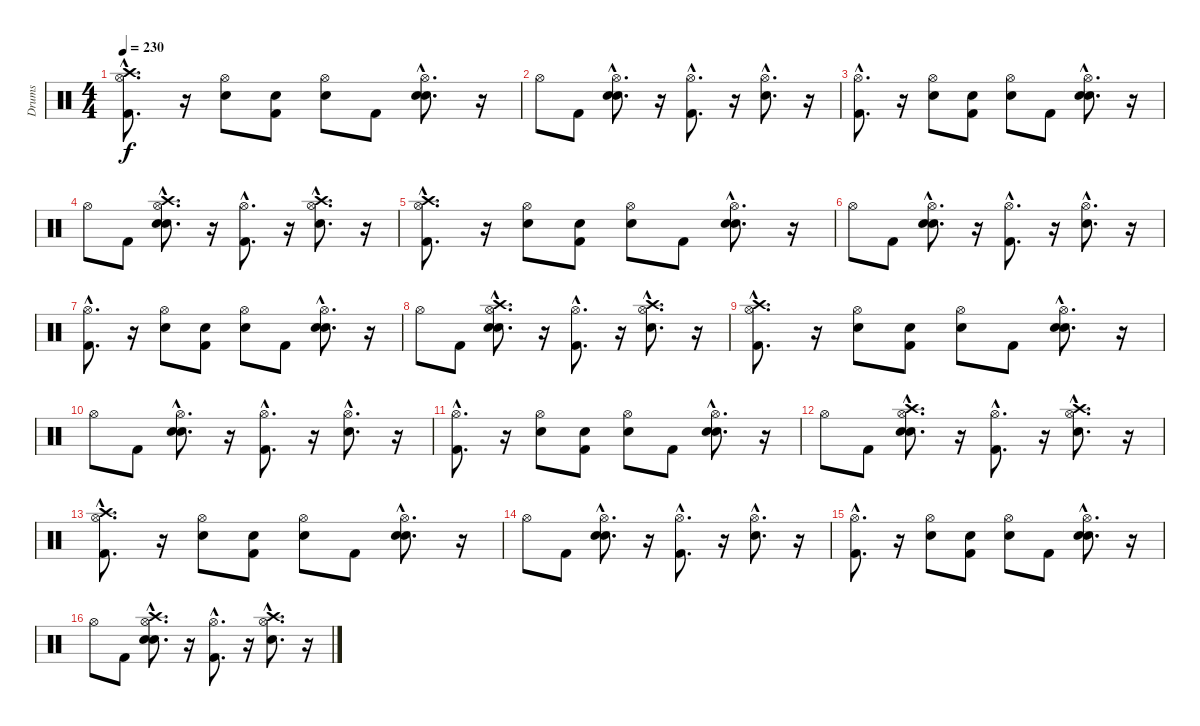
\track ("Drums" "Drums") {instrument percussion}
\staff {score}
\articulation defaults
\ts (4 4)
\tempo 230
\clef neutral
\ks c
("Kick (hit) 2"{hac} "Hi-Hat (open)"{hac} "Crash high (hit)"{hac}).8{d dy f} r.16 ("Snare (hit) 2" "Hi-Hat (open)").8 ("Snare (hit)" "Kick (hit) 2").8 ("Snare (hit)" "Hi-Hat (open)").8 "Kick (hit) 2".8 ("Snare (hit)"{hac} "Snare (hit) 2"{hac} "Hi-Hat (open)"{hac}).8{d} r.16 |
"Hi-Hat (open)".8 "Kick (hit) 2".8 ("Snare (hit)"{hac} "Snare (hit) 2"{hac} "Hi-Hat (open)"{hac}).8{d} r.16 ("Kick (hit) 2"{hac} "Hi-Hat (open)"{hac}).8{d} r.16 ("Snare (hit) 2"{hac} "Hi-Hat (open)"{hac}).8{d} r.16 |
("Kick (hit) 2"{hac} "Hi-Hat (open)"{hac}).8{d} r.16 ("Snare (hit) 2" "Hi-Hat (open)").8 ("Snare (hit)" "Kick (hit) 2").8 ("Snare (hit)" "Hi-Hat (open)").8 "Kick (hit) 2".8 ("Snare (hit)"{hac} "Snare (hit) 2"{hac} "Hi-Hat (open)"{hac}).8{d} r.16 |
"Hi-Hat (open)".8 "Kick (hit) 2".8 ("Snare (hit)"{hac} "Snare (hit) 2"{hac} "Hi-Hat (open)"{hac} "Crash high (hit)"{hac}).8{d} r.16 ("Kick (hit) 2"{hac} "Hi-Hat (open)"{hac}).8{d} r.16 ("Snare (hit) 2"{hac} "Hi-Hat (open)"{hac} "Crash high (hit)"{hac}).8{d} r.16 |
("Kick (hit) 2"{hac} "Hi-Hat (open)"{hac} "Crash high (hit)"{hac}).8{d} r.16 ("Snare (hit) 2" "Hi-Hat (open)").8 ("Snare (hit)" "Kick (hit) 2").8 ("Snare (hit)" "Hi-Hat (open)").8 "Kick (hit) 2".8 ("Snare (hit)"{hac} "Snare (hit) 2"{hac} "Hi-Hat (open)"{hac}).8{d} r.16 |
"Hi-Hat (open)".8 "Kick (hit) 2".8 ("Snare (hit)"{hac} "Snare (hit) 2"{hac} "Hi-Hat (open)"{hac}).8{d} r.16 ("Kick (hit) 2"{hac} "Hi-Hat (open)"{hac}).8{d} r.16 ("Snare (hit) 2"{hac} "Hi-Hat (open)"{hac}).8{d} r.16 |
("Kick (hit) 2"{hac} "Hi-Hat (open)"{hac}).8{d} r.16 ("Snare (hit) 2" "Hi-Hat (open)").8 ("Snare (hit)" "Kick (hit) 2").8 ("Snare (hit)" "Hi-Hat (open)").8 "Kick (hit) 2".8 ("Snare (hit)"{hac} "Snare (hit) 2"{hac} "Hi-Hat (open)"{hac}).8{d} r.16 |
"Hi-Hat (open)".8 "Kick (hit) 2".8 ("Snare (hit)"{hac} "Snare (hit) 2"{hac} "Hi-Hat (open)"{hac} "Crash high (hit)"{hac}).8{d} r.16 ("Kick (hit) 2"{hac} "Hi-Hat (open)"{hac}).8{d} r.16 ("Snare (hit) 2"{hac} "Hi-Hat (open)"{hac} "Crash high (hit)"{hac}).8{d} r.16 |
("Kick (hit) 2"{hac} "Hi-Hat (open)"{hac} "Crash high (hit)"{hac}).8{d} r.16 ("Snare (hit) 2" "Hi-Hat (open)").8 ("Snare (hit)" "Kick (hit) 2").8 ("Snare (hit)" "Hi-Hat (open)").8 "Kick (hit) 2".8 ("Snare (hit)"{hac} "Snare (hit) 2"{hac} "Hi-Hat (open)"{hac}).8{d} r.16 |
"Hi-Hat (open)".8 "Kick (hit) 2".8 ("Snare (hit)"{hac} "Snare (hit) 2"{hac} "Hi-Hat (open)"{hac}).8{d} r.16 ("Kick (hit) 2"{hac} "Hi-Hat (open)"{hac}).8{d} r.16 ("Snare (hit) 2"{hac} "Hi-Hat (open)"{hac}).8{d} r.16 |
("Kick (hit) 2"{hac} "Hi-Hat (open)"{hac}).8{d} r.16 ("Snare (hit) 2" "Hi-Hat (open)").8 ("Snare (hit)" "Kick (hit) 2").8 ("Snare (hit)" "Hi-Hat (open)").8 "Kick (hit) 2".8 ("Snare (hit)"{hac} "Snare (hit) 2"{hac} "Hi-Hat (open)"{hac}).8{d} r.16 |
"Hi-Hat (open)".8 "Kick (hit) 2".8 ("Snare (hit)"{hac} "Snare (hit) 2"{hac} "Hi-Hat (open)"{hac} "Crash high (hit)"{hac}).8{d} r.16 ("Kick (hit) 2"{hac} "Hi-Hat (open)"{hac}).8{d} r.16 ("Snare (hit) 2"{hac} "Hi-Hat (open)"{hac} "Crash high (hit)"{hac}).8{d} r.16 |
("Kick (hit) 2"{hac} "Hi-Hat (open)"{hac} "Crash high (hit)"{hac}).8{d} r.16 ("Snare (hit) 2" "Hi-Hat (open)").8 ("Snare (hit)" "Kick (hit) 2").8 ("Snare (hit)" "Hi-Hat (open)").8 "Kick (hit) 2".8 ("Snare (hit)"{hac} "Snare (hit) 2"{hac} "Hi-Hat (open)"{hac}).8{d} r.16 |
"Hi-Hat (open)".8 "Kick (hit) 2".8 ("Snare (hit)"{hac} "Snare (hit) 2"{hac} "Hi-Hat (open)"{hac}).8{d} r.16 ("Kick (hit) 2"{hac} "Hi-Hat (open)"{hac}).8{d} r.16 ("Snare (hit) 2"{hac} "Hi-Hat (open)"{hac}).8{d} r.16 |
("Kick (hit) 2"{hac} "Hi-Hat (open)"{hac}).8{d} r.16 ("Snare (hit) 2" "Hi-Hat (open)").8 ("Snare (hit)" "Kick (hit) 2").8 ("Snare (hit)" "Hi-Hat (open)").8 "Kick (hit) 2".8 ("Snare (hit)"{hac} "Snare (hit) 2"{hac} "Hi-Hat (open)"{hac}).8{d} r.16 |
"Hi-Hat (open)".8 "Kick (hit) 2".8 ("Snare (hit)"{hac} "Snare (hit) 2"{hac} "Hi-Hat (open)"{hac} "Crash high (hit)"{hac}).8{d} r.16 ("Kick (hit) 2"{hac} "Hi-Hat (open)"{hac}).8{d} r.16 ("Snare (hit) 2"{hac} "Hi-Hat (open)"{hac} "Crash high (hit)"{hac}).8{d} r.16
